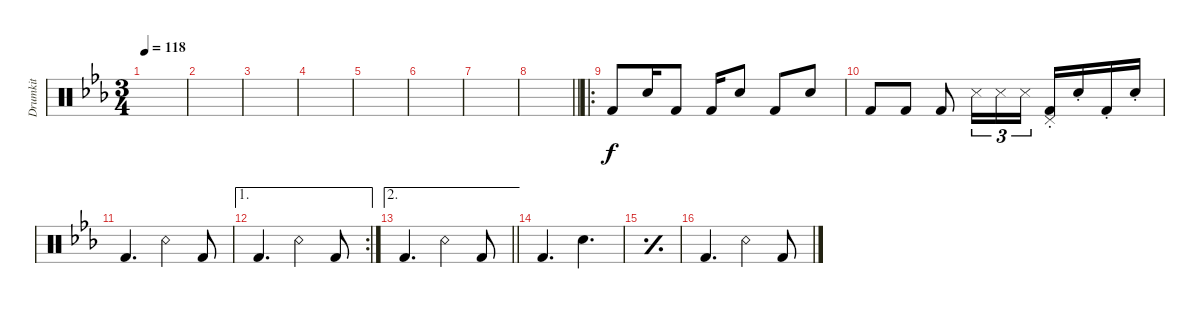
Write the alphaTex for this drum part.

\defaultSystemsLayout 4
\bracketExtendMode groupsimilarinstruments
\otherSystemsTrackNameOrientation horizontal
\track ("Drumkit" "Drumkit") {instrument percussion}
\staff {score}
\articulation defaults
\ts (3 4)
\scale
1.1184
\tempo 118
\accidentals auto
\clef neutral
\ottava regular
\simile none
\scale
0.525
\ks cminor
|
\scale
0.881601
\scale
0.2375 |
\scale
1.10663
\scale
0.2375 |
\scale
0.893371
\scale
0.333333 |
\scale
1.07531
\scale
0.333333 |
\scale
0.92469
\scale
0.333333 |
\scale
1.08251 |
\scale
0.991881
\barLineRight lightlight
|
\ro
\scale
1.0472 "Kick (hit) 2"{acc forcenatural}.8{beam Up} "Snare (hit) 2"{acc forcenatural}.16{beam Up} "Kick (hit) 2"{acc forcenatural}.8{beam Up} "Kick (hit) 2"{acc forcenatural}.16{beam Up} "Snare (hit) 2"{acc forcenatural}.8{beam Up} "Kick (hit) 2"{acc forcenatural}.8{beam Up} "Snare (hit) 2"{acc forcenatural}.8{beam Up} |
\scale
0.952796 "Kick (hit) 2"{acc forcenatural}.8{beam Up} "Kick (hit) 2"{acc forcenatural}.8{beam Up} "Kick (hit) 2"{acc forcenatural}.8{beam Up} "Snare (side stick) 3"{acc forcenatural}.16{tu (3 2) beam Down} "Snare (side stick) 3"{acc forcenatural}.16{tu (3 2) beam Down} "Snare (side stick) 3"{acc forcenatural}.16{tu (3 2) beam Down} ("Pedal Hi-Hat (hit)"{st acc forcenatural} "Kick (hit) 2"{st acc forcenatural}).16{beam Up} "Snare (hit) 2"{st acc forcenatural}.16{beam Up} "Kick (hit) 2"{st acc forcenatural}.16{beam Up} "Snare (hit) 2"{st acc forcenatural}.16{beam Up} |
\scale
1.06077 "Kick (hit) 2"{acc forcenatural}.4{d beam Up} "Snare (rim shot)"{acc forcenatural}.4{beam Down} "Kick (hit) 2"{acc forcenatural}.8{beam Up} |
\ae 1
\rc 2
\scale
0.939232 "Kick (hit) 2"{acc forcenatural}.4{d beam Up} "Snare (rim shot)"{acc forcenatural}.4{beam Down} "Kick (hit) 2"{acc forcenatural}.8{beam Up} |
\ae 2
\scale
1.02828
\barLineRight lightlight "Kick (hit) 2"{acc forcenatural}.4{d beam Up} "Snare (rim shot)"{acc forcenatural}.4{beam Down} "Kick (hit) 2"{acc forcenatural}.8{beam Up}
|
\scale
0.971723 "Kick (hit) 2"{acc forcenatural}.4{d beam Up} "Snare (hit) 2"{acc forcenatural}.4{d beam Down} |
\scale
0.57887
\simile simple
|
\scale
1.42113
\simile none "Kick (hit) 2"{acc forcenatural}.4{d beam Up} "Snare (rim shot)"{acc forcenatural}.4{beam Down} "Kick (hit) 2"{acc forcenatural}.8{beam Up}
